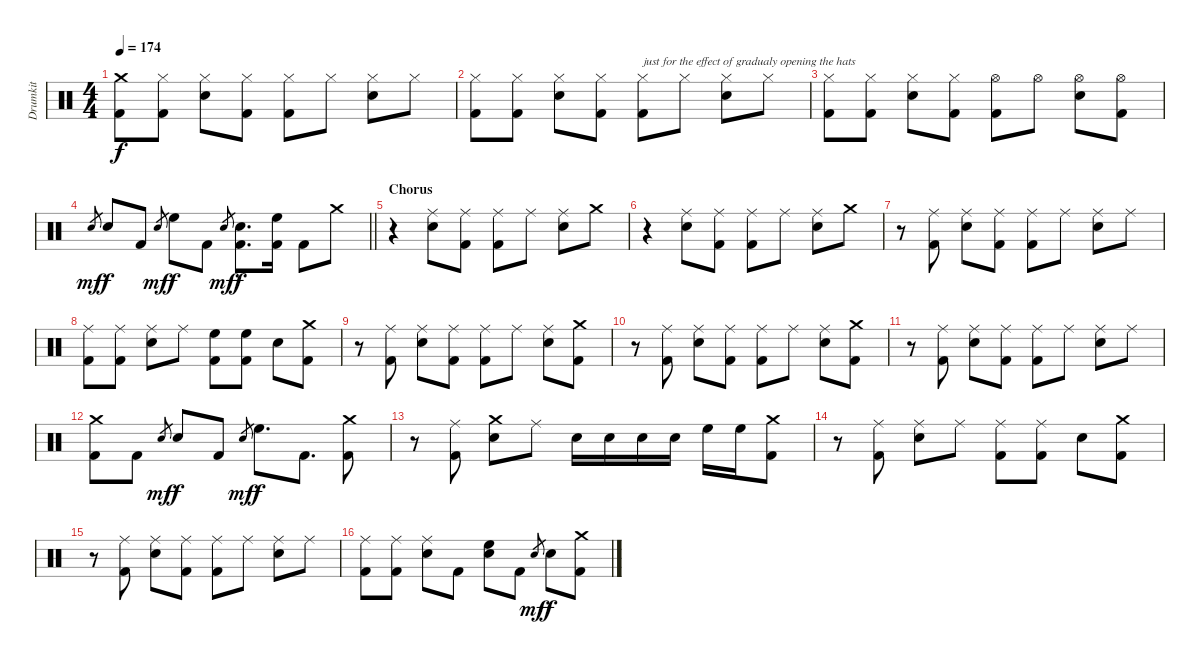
\track ("Drumkit" "Drumkit") {instrument percussion}
\staff {score}
\articulation defaults
\ts (4 4)
\tempo 174
\clef neutral
\ks c
("Crash medium (hit)" "Kick (hit) 2").8{dy f} ("Hi-Hat (closed)" "Kick (hit) 2").8 ("Hi-Hat (closed)" "Snare (hit) 2").8 ("Hi-Hat (closed)" "Kick (hit) 2").8 ("Hi-Hat (closed)" "Kick (hit) 2").8 "Hi-Hat (closed)".8 ("Hi-Hat (closed)" "Snare (hit) 2").8 "Hi-Hat (closed)".8 |
("Hi-Hat (closed)" "Kick (hit) 2").8 ("Hi-Hat (closed)" "Kick (hit) 2").8 ("Hi-Hat (closed)" "Snare (hit) 2").8 ("Hi-Hat (closed)" "Kick (hit) 2").8 ("Hi-Hat (closed)" "Kick (hit) 2").8{txt "just for the effect of gradualy opening the hats"} "Hi-Hat (closed)".8 ("Hi-Hat (closed)" "Snare (hit) 2").8 "Hi-Hat (closed)".8 |
("Hi-Hat (closed)" "Kick (hit) 2").8 ("Hi-Hat (closed)" "Kick (hit) 2").8 ("Hi-Hat (closed)" "Snare (hit) 2").8 ("Hi-Hat (closed)" "Kick (hit) 2").8 ("Hi-Hat (open)" "Kick (hit) 2").8 "Hi-Hat (open)".8 ("Hi-Hat (open)" "Snare (hit) 2").8 ("Hi-Hat (open)" "Kick (hit) 2").8 |
\barLineRight lightlight "Snare (hit)".8{gr dy mf} "Snare (hit) 2".8{dy f} "Kick (hit) 2".8 "Snare (hit)".8{gr dy mf} "High Floor Tom (hit)".8{dy f} "Kick (hit) 2".8 "Snare (hit)".8{gr dy mf}
("Snare (hit) 2" "Kick (hit) 2").8{d dy f} ("High Floor Tom (hit)" "Kick (hit) 2").16 "Kick (hit) 2".8 "Crash medium (hit)".8 |
\section ("" "Chorus")
r.4 ("Ride (middle)" "Snare (hit) 2").8 ("Ride (middle)" "Kick (hit) 2").8 ("Ride (middle)" "Kick (hit) 2").8 "Ride (middle)".8 ("Ride (middle)" "Snare (hit) 2").8 "Crash medium (hit)".8 |
r.4 ("Ride (middle)" "Snare (hit) 2").8 ("Ride (middle)" "Kick (hit) 2").8 ("Ride (middle)" "Kick (hit) 2").8 "Ride (middle)".8 ("Ride (middle)" "Snare (hit) 2").8 "Crash medium (hit)".8 |
r.8 ("Ride (middle)" "Kick (hit) 2").8 ("Ride (middle)" "Snare (hit) 2").8 ("Ride (middle)" "Kick (hit) 2").8 ("Ride (middle)" "Kick (hit) 2").8 "Ride (middle)".8 ("Ride (middle)" "Snare (hit) 2").8 "Ride (middle)".8 |
("Ride (middle)" "Kick (hit) 2").8 ("Ride (middle)" "Kick (hit) 2").8 ("Ride (middle)" "Snare (hit) 2").8 "Ride (middle)".8 ("High Floor Tom (hit)" "Kick (hit) 2").8 ("High Floor Tom (hit)" "Kick (hit) 2").8 "Snare (hit) 2".8 ("Crash medium (hit)" "Kick (hit) 2").8 |
r.8 ("Ride (middle)" "Kick (hit) 2").8 ("Ride (middle)" "Snare (hit) 2").8 ("Ride (middle)" "Kick (hit) 2").8 ("Ride (middle)" "Kick (hit) 2").8 "Ride (middle)".8 ("Ride (middle)" "Snare (hit) 2").8 ("Crash medium (hit)" "Kick (hit) 2").8 |
r.8 ("Ride (middle)" "Kick (hit) 2").8 ("Ride (middle)" "Snare (hit) 2").8 ("Ride (middle)" "Kick (hit) 2").8 ("Ride (middle)" "Kick (hit) 2").8 "Ride (middle)".8 ("Ride (middle)" "Snare (hit) 2").8 ("Crash medium (hit)" "Kick (hit) 2").8 |
r.8 ("Ride (middle)" "Kick (hit) 2").8 ("Ride (middle)" "Snare (hit) 2").8 ("Ride (middle)" "Kick (hit) 2").8 ("Ride (middle)" "Kick (hit) 2").8 "Ride (middle)".8 ("Ride (middle)" "Snare (hit) 2").8 "Ride (middle)".8 |
("Crash medium (hit)" "Kick (hit) 2").8 "Kick (hit) 2".8 "Snare (hit)".8{gr dy mf} "Snare (hit) 2".8{dy f} "Kick (hit) 2".8 "Snare (hit)".8{gr dy mf} "High Floor Tom (hit)".8{d dy f} "Kick (hit) 2".8{d} ("Crash medium (hit)" "Kick (hit) 2").8 |
r.8 ("Ride (middle)" "Kick (hit) 2").8 ("Crash medium (hit)" "Snare (hit) 2").8 "Ride (middle)".8 "Snare (hit) 2".16 "Snare (hit) 2".16 "Snare (hit) 2".16 "Snare (hit) 2".16 "High Floor Tom (hit)".16 "High Floor Tom (hit)".16 ("Crash medium (hit)" "Kick (hit) 2").8 |
r.8 ("Ride (middle)" "Kick (hit) 2").8 ("Ride (middle)" "Snare (hit) 2").8 "Ride (middle)".8 ("Ride (middle)" "Kick (hit) 2").8 ("Ride (middle)" "Kick (hit) 2").8 "Snare (hit) 2".8 ("Crash medium (hit)" "Kick (hit) 2").8 |
r.8 ("Ride (middle)" "Kick (hit) 2").8 ("Ride (middle)" "Snare (hit) 2").8 ("Ride (middle)" "Kick (hit) 2").8 ("Ride (middle)" "Kick (hit) 2").8 "Ride (middle)".8 ("Ride (middle)" "Snare (hit) 2").8 "Ride (middle)".8 |
("Ride (middle)" "Kick (hit) 2").8 ("Ride (middle)" "Kick (hit) 2").8 ("Ride (middle)" "Snare (hit) 2").8 "Kick (hit) 2".8 ("High Floor Tom (hit)" "Snare (hit) 2").8 "Kick (hit) 2".8 "Snare (hit)".8{gr dy mf} "Snare (hit) 2".8{dy f} ("Crash medium (hit)" "Kick (hit) 2").8
